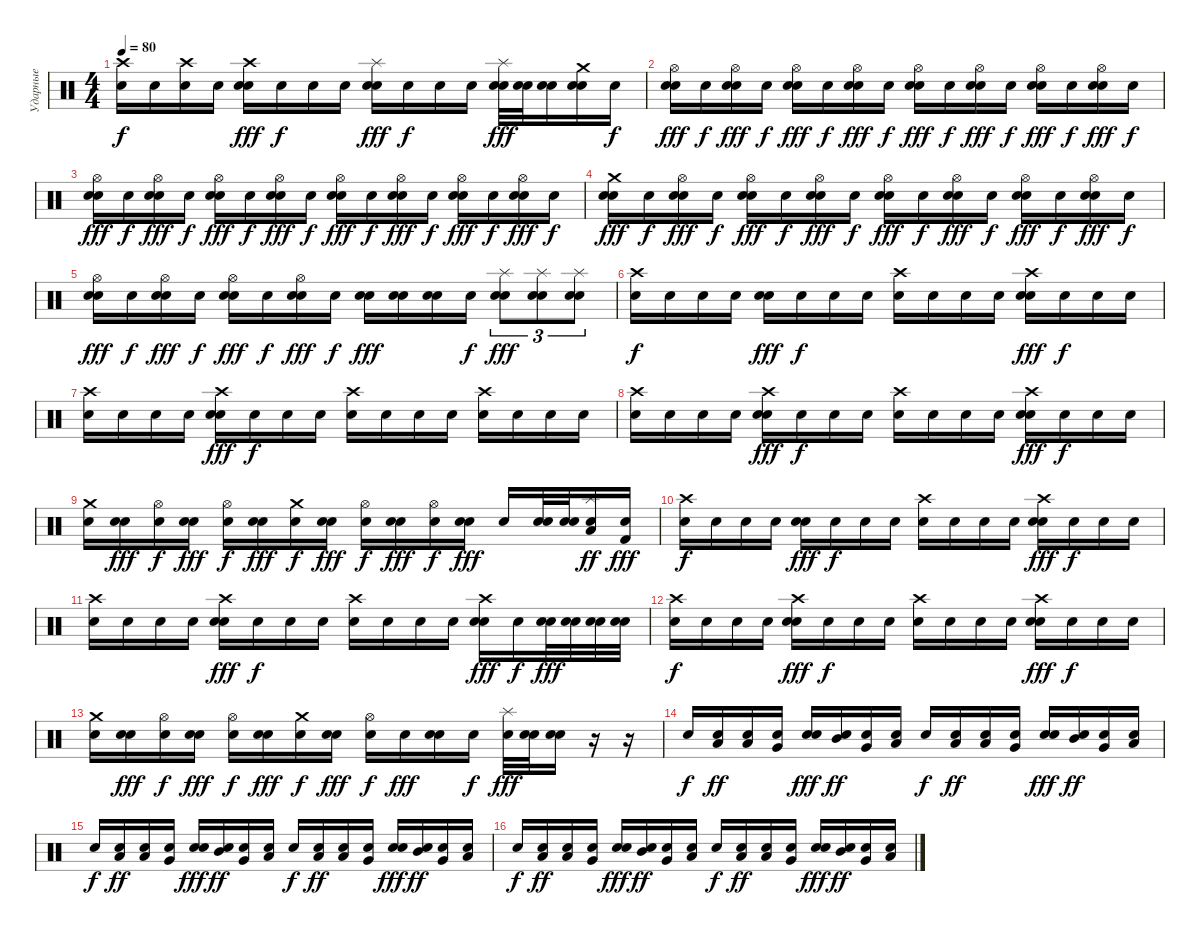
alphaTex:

\track ("Ударные" "Ударные") {instrument percussion}
\staff
\articulation defaults
\ts (4 4)
\tempo 80
\clef neutral
\ks c
("Crash high (hit)" "Snare (hit)").16{dy f} "Snare (hit)".16 ("Crash high (hit)" "Snare (hit)").16 "Snare (hit)".16 ("Crash high (hit)" "Electric Snare (hit)" "Snare (hit)").16{dy fff} "Snare (hit)".16{dy f} "Snare (hit)".16 "Snare (hit)".16 ("Splash (hit)" "Electric Snare (hit)" "Snare (hit)").16{dy fff} "Snare (hit)".16{dy f} "Snare (hit)".16 "Snare (hit)".16 ("Splash (hit)" "Electric Snare (hit)" "Snare (hit)").32{dy fff} ("Electric Snare (hit)" "Snare (hit)").32 ("Electric Snare (hit)" "Snare (hit)").16 ("Crash medium (hit)" "Electric Snare (hit)" "Snare (hit)").16 "Snare (hit)".16{dy f} |
("Hi-Hat (open)" "Electric Snare (hit)" "Snare (hit)").16{dy fff} "Snare (hit)".16{dy f} ("Hi-Hat (open)" "Electric Snare (hit)" "Snare (hit)").16{dy fff} "Snare (hit)".16{dy f} ("Hi-Hat (open)" "Electric Snare (hit)" "Snare (hit)").16{dy fff} "Snare (hit)".16{dy f} ("Hi-Hat (open)" "Electric Snare (hit)" "Snare (hit)").16{dy fff} "Snare (hit)".16{dy f} ("Hi-Hat (open)" "Electric Snare (hit)" "Snare (hit)").16{dy fff} "Snare (hit)".16{dy f} ("Hi-Hat (open)" "Electric Snare (hit)" "Snare (hit)").16{dy fff} "Snare (hit)".16{dy f} ("Hi-Hat (open)" "Electric Snare (hit)" "Snare (hit)").16{dy fff} "Snare (hit)".16{dy f} ("Hi-Hat (open)" "Electric Snare (hit)" "Snare (hit)").16{dy fff} "Snare (hit)".16{dy f} |
("Hi-Hat (open)" "Electric Snare (hit)" "Snare (hit)").16{dy fff} "Snare (hit)".16{dy f} ("Hi-Hat (open)" "Electric Snare (hit)" "Snare (hit)").16{dy fff} "Snare (hit)".16{dy f} ("Hi-Hat (open)" "Electric Snare (hit)" "Snare (hit)").16{dy fff} "Snare (hit)".16{dy f} ("Hi-Hat (open)" "Electric Snare (hit)" "Snare (hit)").16{dy fff} "Snare (hit)".16{dy f} ("Hi-Hat (open)" "Electric Snare (hit)" "Snare (hit)").16{dy fff} "Snare (hit)".16{dy f} ("Hi-Hat (open)" "Electric Snare (hit)" "Snare (hit)").16{dy fff} "Snare (hit)".16{dy f} ("Hi-Hat (open)" "Electric Snare (hit)" "Snare (hit)").16{dy fff} "Snare (hit)".16{dy f} ("Hi-Hat (open)" "Electric Snare (hit)" "Snare (hit)").16{dy fff} "Snare (hit)".16{dy f} |
("Crash medium (hit)" "Electric Snare (hit)" "Snare (hit)").16{dy fff} "Snare (hit)".16{dy f} ("Hi-Hat (open)" "Electric Snare (hit)" "Snare (hit)").16{dy fff} "Snare (hit)".16{dy f} ("Hi-Hat (open)" "Electric Snare (hit)" "Snare (hit)").16{dy fff} "Snare (hit)".16{dy f} ("Hi-Hat (open)" "Electric Snare (hit)" "Snare (hit)").16{dy fff} "Snare (hit)".16{dy f} ("Hi-Hat (open)" "Electric Snare (hit)" "Snare (hit)").16{dy fff} "Snare (hit)".16{dy f} ("Hi-Hat (open)" "Electric Snare (hit)" "Snare (hit)").16{dy fff} "Snare (hit)".16{dy f} ("Hi-Hat (open)" "Electric Snare (hit)" "Snare (hit)").16{dy fff} "Snare (hit)".16{dy f} ("Hi-Hat (open)" "Electric Snare (hit)" "Snare (hit)").16{dy fff} "Snare (hit)".16{dy f} |
("Hi-Hat (open)" "Electric Snare (hit)" "Snare (hit)").16{dy fff} "Snare (hit)".16{dy f} ("Hi-Hat (open)" "Electric Snare (hit)" "Snare (hit)").16{dy fff} "Snare (hit)".16{dy f} ("Hi-Hat (open)" "Electric Snare (hit)" "Snare (hit)").16{dy fff} "Snare (hit)".16{dy f} ("Hi-Hat (open)" "Electric Snare (hit)" "Snare (hit)").16{dy fff} "Snare (hit)".16{dy f} ("Electric Snare (hit)" "Snare (hit)").16{dy fff} ("Electric Snare (hit)" "Snare (hit)").16 ("Electric Snare (hit)" "Snare (hit)").16 "Snare (hit)".16{dy f} ("Splash (hit)" "Electric Snare (hit)" "Snare (hit)").8{tu (3 2) dy fff} ("Splash (hit)" "Electric Snare (hit)" "Snare (hit)").8{tu (3 2)} ("Splash (hit)" "Electric Snare (hit)" "Snare (hit)").8{tu (3 2)} |
("Crash high (hit)" "Snare (hit)").16{dy f} "Snare (hit)".16 "Snare (hit)".16 "Snare (hit)".16 ("Electric Snare (hit)" "Snare (hit)").16{dy fff} "Snare (hit)".16{dy f} "Snare (hit)".16 "Snare (hit)".16 ("Crash high (hit)" "Snare (hit)").16 "Snare (hit)".16 "Snare (hit)".16 "Snare (hit)".16 ("Crash high (hit)" "Electric Snare (hit)" "Snare (hit)").16{dy fff} "Snare (hit)".16{dy f} "Snare (hit)".16 "Snare (hit)".16 |
("Crash high (hit)" "Snare (hit)").16 "Snare (hit)".16 "Snare (hit)".16 "Snare (hit)".16 ("Crash high (hit)" "Electric Snare (hit)" "Snare (hit)").16{dy fff} "Snare (hit)".16{dy f} "Snare (hit)".16 "Snare (hit)".16 ("Crash high (hit)" "Snare (hit)").16 "Snare (hit)".16 "Snare (hit)".16 "Snare (hit)".16 ("Crash high (hit)" "Snare (hit)").16 "Snare (hit)".16 "Snare (hit)".16 "Snare (hit)".16 |
("Crash high (hit)" "Snare (hit)").16 "Snare (hit)".16 "Snare (hit)".16 "Snare (hit)".16 ("Crash high (hit)" "Electric Snare (hit)" "Snare (hit)").16{dy fff} "Snare (hit)".16{dy f} "Snare (hit)".16 "Snare (hit)".16 ("Crash high (hit)" "Snare (hit)").16 "Snare (hit)".16 "Snare (hit)".16 "Snare (hit)".16 ("Crash high (hit)" "Electric Snare (hit)" "Snare (hit)").16{dy fff} "Snare (hit)".16{dy f} "Snare (hit)".16 "Snare (hit)".16 |
("Crash medium (hit)" "Snare (hit)").16 ("Electric Snare (hit)" "Snare (hit)").16{dy fff} ("Hi-Hat (open)" "Snare (hit)").16{dy f} ("Electric Snare (hit)" "Snare (hit)").16{dy fff} ("Hi-Hat (open)" "Snare (hit)").16{dy f} ("Electric Snare (hit)" "Snare (hit)").16{dy fff} ("Crash medium (hit)" "Snare (hit)").16{dy f} ("Electric Snare (hit)" "Snare (hit)").16{dy fff} ("Hi-Hat (open)" "Snare (hit)").16{dy f} ("Electric Snare (hit)" "Snare (hit)").16{dy fff} ("Hi-Hat (open)" "Snare (hit)").16{dy f} ("Electric Snare (hit)" "Snare (hit)").16{dy fff} "Snare (hit)".16 ("Electric Snare (hit)" "Snare (hit)").32 ("Electric Snare (hit)" "Snare (hit)").32 ("Splash (hit)" "Low Tom (hit)" "Snare (hit)").16{dy ff} ("Kick (hit) 2" "Snare (hit)").16{dy fff} |
("Crash high (hit)" "Snare (hit)").16{dy f} "Snare (hit)".16 "Snare (hit)".16 "Snare (hit)".16 ("Electric Snare (hit)" "Snare (hit)").16{dy fff} "Snare (hit)".16{dy f} "Snare (hit)".16 "Snare (hit)".16 ("Crash high (hit)" "Snare (hit)").16 "Snare (hit)".16 "Snare (hit)".16 "Snare (hit)".16 ("Crash high (hit)" "Electric Snare (hit)" "Snare (hit)").16{dy fff} "Snare (hit)".16{dy f} "Snare (hit)".16 "Snare (hit)".16 |
("Crash high (hit)" "Snare (hit)").16 "Snare (hit)".16 "Snare (hit)".16 "Snare (hit)".16 ("Crash high (hit)" "Electric Snare (hit)" "Snare (hit)").16{dy fff} "Snare (hit)".16{dy f} "Snare (hit)".16 "Snare (hit)".16 ("Crash high (hit)" "Snare (hit)").16 "Snare (hit)".16 "Snare (hit)".16 "Snare (hit)".16 ("Crash high (hit)" "Electric Snare (hit)" "Snare (hit)").16{dy fff} "Snare (hit)".16{dy f} ("Electric Snare (hit)" "Snare (hit)").32{dy fff} ("Electric Snare (hit)" "Snare (hit)").32 ("Electric Snare (hit)" "Snare (hit)").32 ("Electric Snare (hit)" "Snare (hit)").32 |
("Crash high (hit)" "Snare (hit)").16{dy f} "Snare (hit)".16 "Snare (hit)".16 "Snare (hit)".16 ("Crash high (hit)" "Electric Snare (hit)" "Snare (hit)").16{dy fff} "Snare (hit)".16{dy f} "Snare (hit)".16 "Snare (hit)".16 ("Crash high (hit)" "Snare (hit)").16 "Snare (hit)".16 "Snare (hit)".16 "Snare (hit)".16 ("Crash high (hit)" "Electric Snare (hit)" "Snare (hit)").16{dy fff} "Snare (hit)".16{dy f} "Snare (hit)".16 "Snare (hit)".16 |
("Crash medium (hit)" "Snare (hit)").16 ("Electric Snare (hit)" "Snare (hit)").16{dy fff} ("Hi-Hat (open)" "Snare (hit)").16{dy f} ("Electric Snare (hit)" "Snare (hit)").16{dy fff} ("Hi-Hat (open)" "Snare (hit)").16{dy f} ("Electric Snare (hit)" "Snare (hit)").16{dy fff} ("Crash medium (hit)" "Snare (hit)").16{dy f} ("Electric Snare (hit)" "Snare (hit)").16{dy fff} ("Hi-Hat (open)" "Snare (hit)").16{dy f} "Electric Snare (hit)".16{dy fff} ("Electric Snare (hit)" "Snare (hit)").16 "Snare (hit)".16{dy f} ("Splash (hit)" "Electric Snare (hit)").32{dy fff} ("Electric Snare (hit)" "Snare (hit)").32 ("Electric Snare (hit)" "Snare (hit)").16 r.16 r.16 |
"Snare (hit)".16{dy f} ("Low Tom (hit)" "Snare (hit)").16{dy ff} ("Low Floor Tom (hit)" "Snare (hit)").16 ("Very Low Tom (hit)" "Snare (hit)").16 ("Electric Snare (hit)" "Snare (hit)").16{dy fff} ("Mid Tom (hit)" "Snare (hit)").16{dy ff} ("Very Low Tom (hit)" "Snare (hit)").16 ("Low Tom (hit)" "Snare (hit)").16 "Snare (hit)".16{dy f} ("Low Tom (hit)" "Snare (hit)").16{dy ff} ("Low Floor Tom (hit)" "Snare (hit)").16 ("Very Low Tom (hit)" "Snare (hit)").16 ("Electric Snare (hit)" "Snare (hit)").16{dy fff} ("Mid Tom (hit)" "Snare (hit)").16{dy ff} ("Very Low Tom (hit)" "Snare (hit)").16 ("Low Tom (hit)" "Snare (hit)").16 |
"Snare (hit)".16{dy f} ("Low Tom (hit)" "Snare (hit)").16{dy ff} ("Low Floor Tom (hit)" "Snare (hit)").16 ("Very Low Tom (hit)" "Snare (hit)").16 ("Electric Snare (hit)" "Snare (hit)").16{dy fff} ("Mid Tom (hit)" "Snare (hit)").16{dy ff} ("Very Low Tom (hit)" "Snare (hit)").16 ("Low Tom (hit)" "Snare (hit)").16 "Snare (hit)".16{dy f} ("Low Tom (hit)" "Snare (hit)").16{dy ff} ("Low Floor Tom (hit)" "Snare (hit)").16 ("Very Low Tom (hit)" "Snare (hit)").16 ("Electric Snare (hit)" "Snare (hit)").16{dy fff} ("Mid Tom (hit)" "Snare (hit)").16{dy ff} ("Very Low Tom (hit)" "Snare (hit)").16 ("Low Tom (hit)" "Snare (hit)").16 |
"Snare (hit)".16{dy f} ("Low Tom (hit)" "Snare (hit)").16{dy ff} ("Low Floor Tom (hit)" "Snare (hit)").16 ("Very Low Tom (hit)" "Snare (hit)").16 ("Electric Snare (hit)" "Snare (hit)").16{dy fff} ("Mid Tom (hit)" "Snare (hit)").16{dy ff} ("Very Low Tom (hit)" "Snare (hit)").16 ("Low Tom (hit)" "Snare (hit)").16 "Snare (hit)".16{dy f} ("Low Tom (hit)" "Snare (hit)").16{dy ff} ("Low Floor Tom (hit)" "Snare (hit)").16 ("Very Low Tom (hit)" "Snare (hit)").16 ("Electric Snare (hit)" "Snare (hit)").16{dy fff} ("Mid Tom (hit)" "Snare (hit)").16{dy ff} ("Very Low Tom (hit)" "Snare (hit)").16 ("Low Tom (hit)" "Snare (hit)").16
